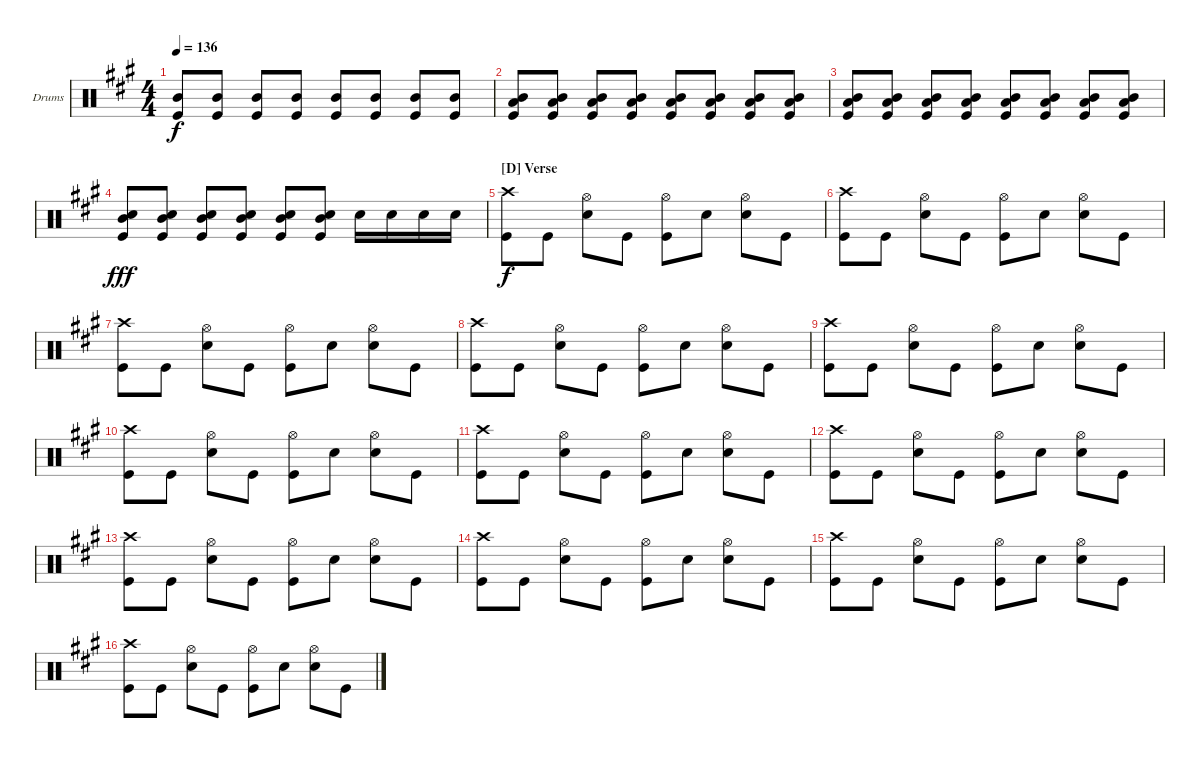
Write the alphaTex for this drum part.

\defaultSystemsLayout 4
\bracketExtendMode groupsimilarinstruments
\firstSystemTrackNameOrientation horizontal
\otherSystemsTrackNameOrientation horizontal
\track ("Drumkit" "Drums") {instrument percussion}
\staff {score}
\articulation defaults
\ts (4 4)
\tempo 136
\clef neutral
\scale
1.05801
\ks a
("Kick (hit)" "Mid Tom (hit)").8{dy f} ("Kick (hit)" "Mid Tom (hit)").8 ("Kick (hit)" "Mid Tom (hit)").8 ("Kick (hit)" "Mid Tom (hit)").8 ("Kick (hit)" "Mid Tom (hit)").8 ("Kick (hit)" "Mid Tom (hit)").8 ("Kick (hit)" "Mid Tom (hit)").8 ("Kick (hit)" "Mid Tom (hit)").8 |
\scale
0.941992 ("Kick (hit)" "Mid Tom (hit)" "Low Tom (hit)").8 ("Kick (hit)" "Mid Tom (hit)" "Low Tom (hit)").8 ("Kick (hit)" "Mid Tom (hit)" "Low Tom (hit)").8 ("Kick (hit)" "Mid Tom (hit)" "Low Tom (hit)").8 ("Kick (hit)" "Mid Tom (hit)" "Low Tom (hit)").8 ("Kick (hit)" "Mid Tom (hit)" "Low Tom (hit)").8 ("Kick (hit)" "Mid Tom (hit)" "Low Tom (hit)").8 ("Kick (hit)" "Mid Tom (hit)" "Low Tom (hit)").8 |
\scale
1.05801 ("Kick (hit)" "Mid Tom (hit)" "Low Tom (hit)").8 ("Kick (hit)" "Mid Tom (hit)" "Low Tom (hit)").8 ("Kick (hit)" "Mid Tom (hit)" "Low Tom (hit)").8 ("Kick (hit)" "Mid Tom (hit)" "Low Tom (hit)").8 ("Kick (hit)" "Mid Tom (hit)" "Low Tom (hit)").8 ("Kick (hit)" "Mid Tom (hit)" "Low Tom (hit)").8 ("Kick (hit)" "Mid Tom (hit)" "Low Tom (hit)").8 ("Kick (hit)" "Mid Tom (hit)" "Low Tom (hit)").8 |
\scale
0.941992 ("Kick (hit)" "Snare (hit) 2" "Mid Tom (hit)").8{dy fff} ("Kick (hit)" "Snare (hit) 2" "Mid Tom (hit)").8 ("Kick (hit)" "Snare (hit) 2" "Mid Tom (hit)").8 ("Kick (hit)" "Snare (hit) 2" "Mid Tom (hit)").8 ("Kick (hit)" "Snare (hit) 2" "Mid Tom (hit)").8 ("Kick (hit)" "Snare (hit) 2" "Mid Tom (hit)").8 "Snare (hit) 2".16 "Snare (hit) 2".16 "Snare (hit) 2".16 "Snare (hit) 2".16 |
\section ("D" "Verse")
\scale
1.05801 ("Crash high (hit)" "Kick (hit)").8{dy f} "Kick (hit)".8 ("Hi-Hat (open)" "Snare (hit) 2").8 "Kick (hit)".8 ("Hi-Hat (open)" "Kick (hit)").8 "Snare (hit) 2".8 ("Hi-Hat (open)" "Snare (hit) 2").8 "Kick (hit)".8 |
\scale
0.941992 ("Crash high (hit)" "Kick (hit)").8 "Kick (hit)".8 ("Hi-Hat (open)" "Snare (hit) 2").8 "Kick (hit)".8 ("Hi-Hat (open)" "Kick (hit)").8 "Snare (hit) 2".8 ("Hi-Hat (open)" "Snare (hit) 2").8 "Kick (hit)".8 |
\scale
1.05801 ("Crash high (hit)" "Kick (hit)").8 "Kick (hit)".8 ("Hi-Hat (open)" "Snare (hit) 2").8 "Kick (hit)".8 ("Hi-Hat (open)" "Kick (hit)").8 "Snare (hit) 2".8 ("Hi-Hat (open)" "Snare (hit) 2").8 "Kick (hit)".8 |
\scale
0.941992 ("Crash high (hit)" "Kick (hit)").8 "Kick (hit)".8 ("Hi-Hat (open)" "Snare (hit) 2").8 "Kick (hit)".8 ("Hi-Hat (open)" "Kick (hit)").8 "Snare (hit) 2".8 ("Hi-Hat (open)" "Snare (hit) 2").8 "Kick (hit)".8 |
\scale
1.05801 ("Crash high (hit)" "Kick (hit)").8 "Kick (hit)".8 ("Hi-Hat (open)" "Snare (hit) 2").8 "Kick (hit)".8 ("Hi-Hat (open)" "Kick (hit)").8 "Snare (hit) 2".8 ("Hi-Hat (open)" "Snare (hit) 2").8 "Kick (hit)".8 |
\scale
0.941992 ("Crash high (hit)" "Kick (hit)").8 "Kick (hit)".8 ("Hi-Hat (open)" "Snare (hit) 2").8 "Kick (hit)".8 ("Hi-Hat (open)" "Kick (hit)").8 "Snare (hit) 2".8 ("Hi-Hat (open)" "Snare (hit) 2").8 "Kick (hit)".8 |
\scale
1.05801 ("Crash high (hit)" "Kick (hit)").8 "Kick (hit)".8 ("Hi-Hat (open)" "Snare (hit) 2").8 "Kick (hit)".8 ("Hi-Hat (open)" "Kick (hit)").8 "Snare (hit) 2".8 ("Hi-Hat (open)" "Snare (hit) 2").8 "Kick (hit)".8 |
\scale
0.941992 ("Crash high (hit)" "Kick (hit)").8 "Kick (hit)".8 ("Hi-Hat (open)" "Snare (hit) 2").8 "Kick (hit)".8 ("Hi-Hat (open)" "Kick (hit)").8 "Snare (hit) 2".8 ("Hi-Hat (open)" "Snare (hit) 2").8 "Kick (hit)".8 |
\scale
1.05801 ("Crash high (hit)" "Kick (hit)").8 "Kick (hit)".8 ("Hi-Hat (open)" "Snare (hit) 2").8 "Kick (hit)".8 ("Hi-Hat (open)" "Kick (hit)").8 "Snare (hit) 2".8 ("Hi-Hat (open)" "Snare (hit) 2").8 "Kick (hit)".8 |
\scale
0.941992 ("Crash high (hit)" "Kick (hit)").8 "Kick (hit)".8 ("Hi-Hat (open)" "Snare (hit) 2").8 "Kick (hit)".8 ("Hi-Hat (open)" "Kick (hit)").8 "Snare (hit) 2".8 ("Hi-Hat (open)" "Snare (hit) 2").8 "Kick (hit)".8 |
\scale
1.05801 ("Crash high (hit)" "Kick (hit)").8 "Kick (hit)".8 ("Hi-Hat (open)" "Snare (hit) 2").8 "Kick (hit)".8 ("Hi-Hat (open)" "Kick (hit)").8 "Snare (hit) 2".8 ("Hi-Hat (open)" "Snare (hit) 2").8 "Kick (hit)".8 |
\scale
0.941992 ("Crash high (hit)" "Kick (hit)").8 "Kick (hit)".8 ("Hi-Hat (open)" "Snare (hit) 2").8 "Kick (hit)".8 ("Hi-Hat (open)" "Kick (hit)").8 "Snare (hit) 2".8 ("Hi-Hat (open)" "Snare (hit) 2").8 "Kick (hit)".8
